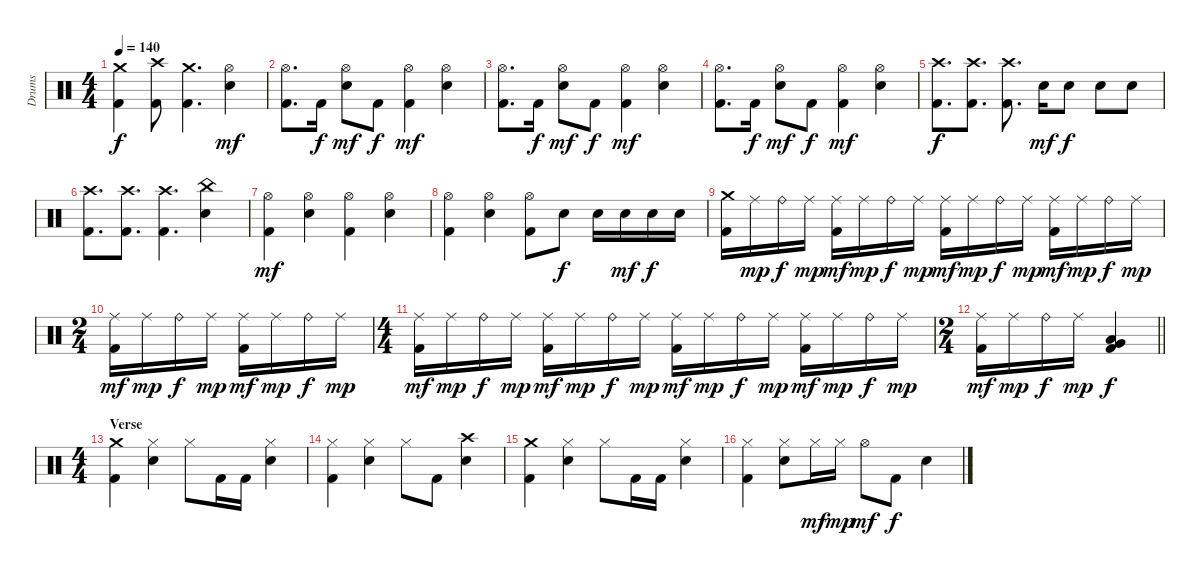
\track ("Drums" "Drums") {instrument percussion}
\staff {score}
\articulation defaults
\ts (4 4)
\tempo 140
\clef neutral
\ks c
("Kick (hit) 2" "Crash medium (hit)").4{dy f} ("Kick (hit) 2" "Crash high (hit)").8 ("Kick (hit) 2" "Crash medium (hit)").4{d} ("Hi-Hat (open)" "Electric Snare (hit)").4{dy mf} |
("Kick (hit) 2" "Hi-Hat (open)").8{d} "Kick (hit) 2".16{dy f} ("Hi-Hat (open)" "Electric Snare (hit)").8{dy mf} "Kick (hit) 2".8{dy f} ("Kick (hit) 2" "Hi-Hat (open)").4{dy mf} ("Hi-Hat (open)" "Electric Snare (hit)").4 |
("Kick (hit) 2" "Hi-Hat (open)").8{d} "Kick (hit) 2".16{dy f} ("Hi-Hat (open)" "Electric Snare (hit)").8{dy mf} "Kick (hit) 2".8{dy f} ("Kick (hit) 2" "Hi-Hat (open)").4{dy mf} ("Hi-Hat (open)" "Electric Snare (hit)").4 |
("Kick (hit) 2" "Hi-Hat (open)").8{d} "Kick (hit) 2".16{dy f} ("Hi-Hat (open)" "Electric Snare (hit)").8{dy mf} "Kick (hit) 2".8{dy f} ("Kick (hit) 2" "Hi-Hat (open)").4{dy mf} ("Hi-Hat (open)" "Electric Snare (hit)").4 |
("Kick (hit) 2" "Crash high (hit)").8{d dy f} ("Kick (hit) 2" "Crash high (hit)").8{d} ("Kick (hit) 2" "Crash high (hit)").8{d} "Electric Snare (hit)".16{dy mf} "Electric Snare (hit)".8{dy f} "Electric Snare (hit)".8 "Electric Snare (hit)".8 |
("Kick (hit) 2" "Crash high (hit)").8{d} ("Kick (hit) 2" "Crash high (hit)").8{d} ("Kick (hit) 2" "Crash high (hit)").4{d} ("China (hit)" "Electric Snare (hit)").4 |
("Kick (hit) 2" "Hi-Hat (open)").4{dy mf} ("Hi-Hat (open)" "Electric Snare (hit)").4 ("Kick (hit) 2" "Hi-Hat (open)").4 ("Hi-Hat (open)" "Electric Snare (hit)").4 |
("Kick (hit) 2" "Hi-Hat (open)").4 ("Hi-Hat (open)" "Electric Snare (hit)").4 ("Kick (hit) 2" "Hi-Hat (open)").8 "Electric Snare (hit)".8{dy f} "Electric Snare (hit)".16 "Electric Snare (hit)".16{dy mf} "Electric Snare (hit)".16{dy f} "Electric Snare (hit)".16 |
("Kick (hit) 2" "Crash medium (hit)").16 "Ride (middle)".16{dy mp} "Ride (bell)".16{dy f} "Ride (middle)".16{dy mp} ("Kick (hit) 2" "Ride (middle)").16{dy mf} "Ride (middle)".16{dy mp} "Ride (bell)".16{dy f} "Ride (middle)".16{dy mp} ("Kick (hit) 2" "Ride (middle)").16{dy mf} "Ride (middle)".16{dy mp} "Ride (bell)".16{dy f} "Ride (middle)".16{dy mp} ("Kick (hit) 2" "Ride (middle)").16{dy mf} "Ride (middle)".16{dy mp} "Ride (bell)".16{dy f} "Ride (middle)".16{dy mp} |
\ts (2 4)
("Kick (hit) 2" "Ride (middle)").16{dy mf} "Ride (middle)".16{dy mp} "Ride (bell)".16{dy f} "Ride (middle)".16{dy mp} ("Kick (hit) 2" "Ride (middle)").16{dy mf} "Ride (middle)".16{dy mp} "Ride (bell)".16{dy f} "Ride (middle)".16{dy mp} |
\ts (4 4)
("Kick (hit) 2" "Ride (middle)").16{dy mf} "Ride (middle)".16{dy mp} "Ride (bell)".16{dy f} "Ride (middle)".16{dy mp} ("Kick (hit) 2" "Ride (middle)").16{dy mf} "Ride (middle)".16{dy mp} "Ride (bell)".16{dy f} "Ride (middle)".16{dy mp} ("Kick (hit) 2" "Ride (middle)").16{dy mf} "Ride (middle)".16{dy mp} "Ride (bell)".16{dy f} "Ride (middle)".16{dy mp} ("Kick (hit) 2" "Ride (middle)").16{dy mf} "Ride (middle)".16{dy mp} "Ride (bell)".16{dy f} "Ride (middle)".16{dy mp} |
\ts (2 4)
\barLineRight lightlight
("Kick (hit) 2" "Ride (middle)").16{dy mf} "Ride (middle)".16{dy mp} "Ride (bell)".16{dy f} "Ride (middle)".16{dy mp} ("Kick (hit) 2" "Very Low Tom (hit)" "Low Tom (hit)").4{dy f} |
\ts (4 4)
\section ("" "Verse")
("Kick (hit) 2" "Crash medium (hit)").4 ("Hi-Hat (closed)" "Electric Snare (hit)").4 "Hi-Hat (closed)".8 "Kick (hit) 2".16 "Kick (hit) 2".16 ("Hi-Hat (closed)" "Electric Snare (hit)").4 |
("Kick (hit) 2" "Hi-Hat (closed)").4 ("Hi-Hat (closed)" "Electric Snare (hit)").4 "Hi-Hat (closed)".8 "Kick (hit) 2".8 ("Crash high (hit)" "Electric Snare (hit)").4 |
("Kick (hit) 2" "Crash medium (hit)").4 ("Hi-Hat (closed)" "Electric Snare (hit)").4 "Hi-Hat (closed)".8 "Kick (hit) 2".16 "Kick (hit) 2".16 ("Hi-Hat (closed)" "Electric Snare (hit)").4 |
("Kick (hit) 2" "Hi-Hat (closed)").4 ("Hi-Hat (closed)" "Electric Snare (hit)").8 "Hi-Hat (closed)".16{dy mf} "Hi-Hat (closed)".16{dy mp} "Hi-Hat (open)".8{dy mf} "Kick (hit) 2".8{dy f} "Electric Snare (hit)".4
